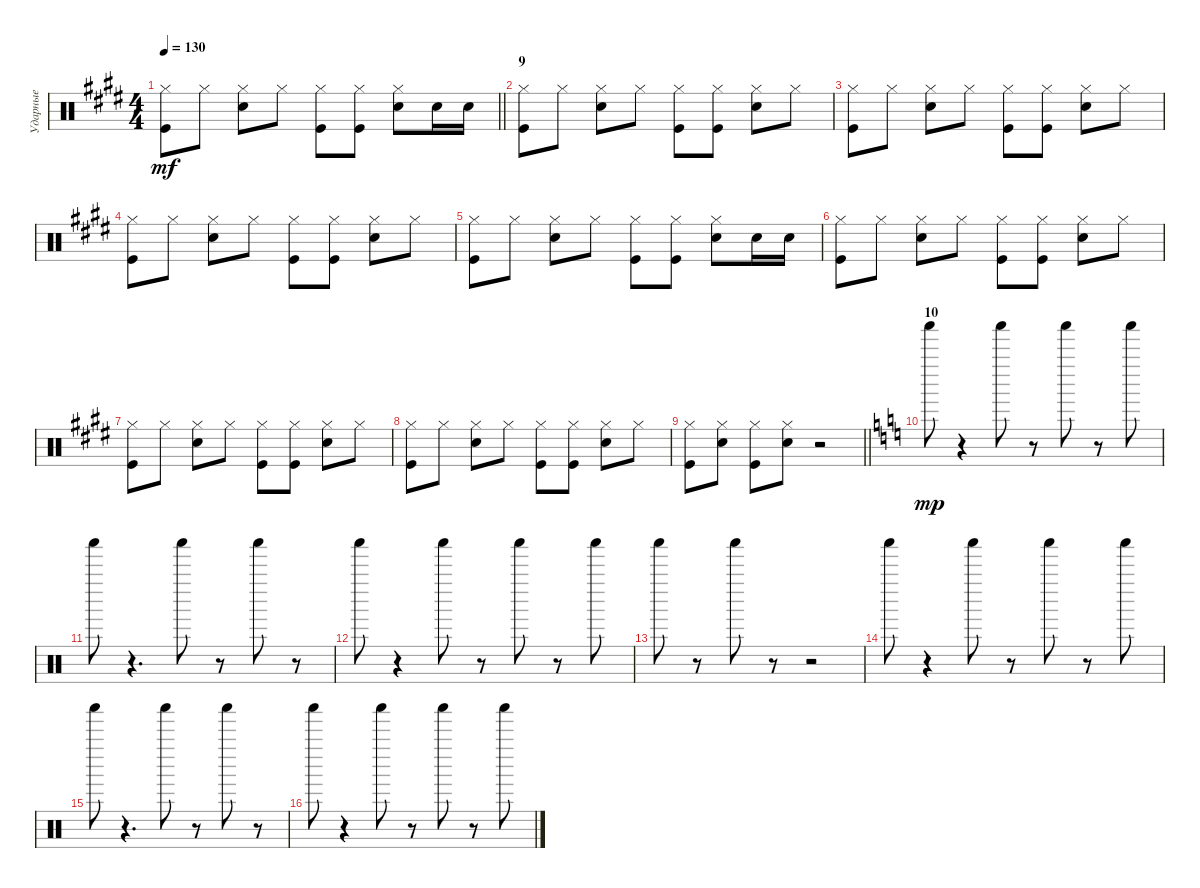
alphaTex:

\track ("Ударные" "Ударные") {instrument percussion}
\staff {score}
\articulation defaults
\ts (4 4)
\tempo 130
\clef neutral
\barLineRight lightlight
\ks e
("Hi-Hat (closed)" "Kick (hit)").8{dy mf} "Hi-Hat (closed)".8 ("Hi-Hat (closed)" "Snare (hit) 2").8 "Hi-Hat (closed)".8 ("Hi-Hat (closed)" "Kick (hit)").8 ("Hi-Hat (closed)" "Kick (hit)").8 ("Hi-Hat (closed)" "Snare (hit) 2").8 "Snare (hit) 2".16 "Snare (hit) 2".16 |
\section ("" "9")
("Hi-Hat (closed)" "Kick (hit)").8 "Hi-Hat (closed)".8 ("Hi-Hat (closed)" "Snare (hit) 2").8 "Hi-Hat (closed)".8 ("Hi-Hat (closed)" "Kick (hit)").8 ("Hi-Hat (closed)" "Kick (hit)").8 ("Hi-Hat (closed)" "Snare (hit) 2").8 "Hi-Hat (closed)".8 |
("Hi-Hat (closed)" "Kick (hit)").8 "Hi-Hat (closed)".8 ("Hi-Hat (closed)" "Snare (hit) 2").8 "Hi-Hat (closed)".8 ("Hi-Hat (closed)" "Kick (hit)").8 ("Hi-Hat (closed)" "Kick (hit)").8 ("Hi-Hat (closed)" "Snare (hit) 2").8 "Hi-Hat (closed)".8 |
("Hi-Hat (closed)" "Kick (hit)").8 "Hi-Hat (closed)".8 ("Hi-Hat (closed)" "Snare (hit) 2").8 "Hi-Hat (closed)".8 ("Hi-Hat (closed)" "Kick (hit)").8 ("Hi-Hat (closed)" "Kick (hit)").8 ("Hi-Hat (closed)" "Snare (hit) 2").8 "Hi-Hat (closed)".8 |
("Hi-Hat (closed)" "Kick (hit)").8 "Hi-Hat (closed)".8 ("Hi-Hat (closed)" "Snare (hit) 2").8 "Hi-Hat (closed)".8 ("Hi-Hat (closed)" "Kick (hit)").8 ("Hi-Hat (closed)" "Kick (hit)").8 ("Hi-Hat (closed)" "Snare (hit) 2").8 "Snare (hit) 2".16 "Snare (hit) 2".16 |
("Hi-Hat (closed)" "Kick (hit)").8 "Hi-Hat (closed)".8 ("Hi-Hat (closed)" "Snare (hit) 2").8 "Hi-Hat (closed)".8 ("Hi-Hat (closed)" "Kick (hit)").8 ("Hi-Hat (closed)" "Kick (hit)").8 ("Hi-Hat (closed)" "Snare (hit) 2").8 "Hi-Hat (closed)".8 |
("Hi-Hat (closed)" "Kick (hit)").8 "Hi-Hat (closed)".8 ("Hi-Hat (closed)" "Snare (hit) 2").8 "Hi-Hat (closed)".8 ("Hi-Hat (closed)" "Kick (hit)").8 ("Hi-Hat (closed)" "Kick (hit)").8 ("Hi-Hat (closed)" "Snare (hit) 2").8 "Hi-Hat (closed)".8 |
("Hi-Hat (closed)" "Kick (hit)").8 "Hi-Hat (closed)".8 ("Hi-Hat (closed)" "Snare (hit) 2").8 "Hi-Hat (closed)".8 ("Hi-Hat (closed)" "Kick (hit)").8 ("Hi-Hat (closed)" "Kick (hit)").8 ("Hi-Hat (closed)" "Snare (hit) 2").8 "Hi-Hat (closed)".8 |
\barLineRight lightlight
("Hi-Hat (closed)" "Kick (hit)").8 ("Hi-Hat (closed)" "Snare (hit) 2").8 ("Hi-Hat (closed)" "Kick (hit)").8 ("Hi-Hat (closed)" "Snare (hit) 2").8 r.2 |
\section ("" "10")
\ks c "Shaker (hit)".8{dy mp}
r.4 "Shaker (hit)".8 r.8 "Shaker (hit)".8 r.8 "Shaker (hit)".8 |
"Shaker (hit)".8 r.4{d} "Shaker (hit)".8 r.8 "Shaker (hit)".8 r.8 |
"Shaker (hit)".8 r.4 "Shaker (hit)".8 r.8 "Shaker (hit)".8 r.8 "Shaker (hit)".8 |
"Shaker (hit)".8 r.8 "Shaker (hit)".8 r.8 r.2 |
"Shaker (hit)".8 r.4 "Shaker (hit)".8 r.8 "Shaker (hit)".8 r.8 "Shaker (hit)".8 |
"Shaker (hit)".8 r.4{d} "Shaker (hit)".8 r.8 "Shaker (hit)".8 r.8 |
"Shaker (hit)".8 r.4 "Shaker (hit)".8 r.8 "Shaker (hit)".8 r.8 "Shaker (hit)".8
